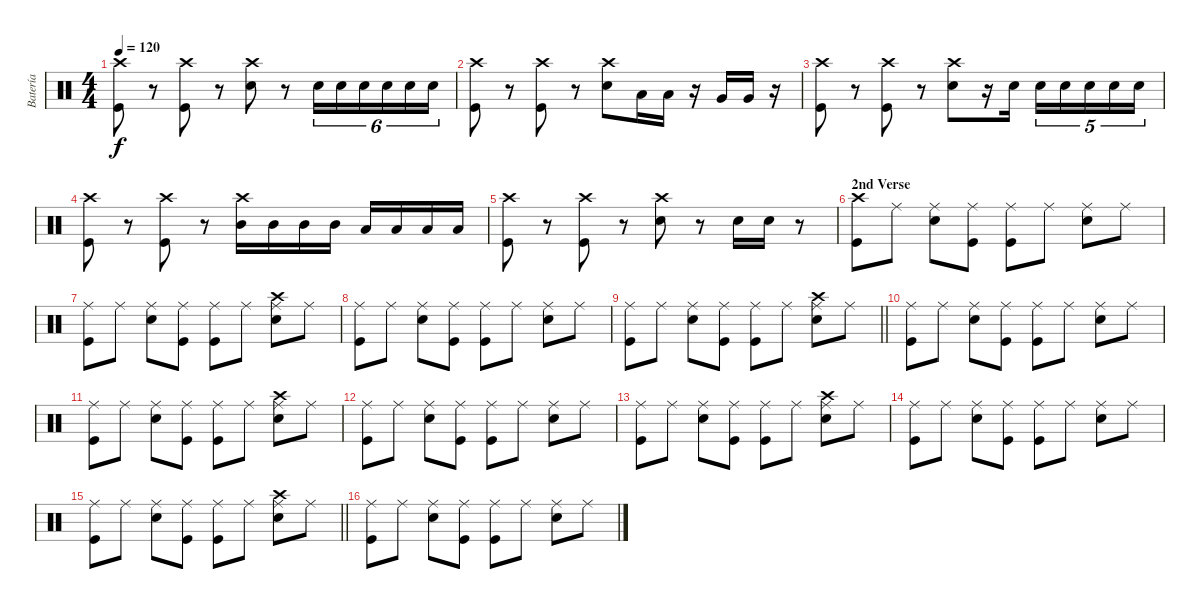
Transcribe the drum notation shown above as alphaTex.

\track ("Batería" "Batería") {instrument percussion}
\staff {score}
\articulation defaults
\ts (4 4)
\tempo 120
\clef neutral
\ks c
("Crash high (hit)" "Kick (hit)").8{dy f} r.8 ("Crash high (hit)" "Kick (hit)").8 r.8 ("Crash high (hit)" "Electric Snare (hit)").8 r.8 "Electric Snare (hit)".16{tu (6 4)} "Electric Snare (hit)".16{tu (6 4)} "Electric Snare (hit)".16{tu (6 4)} "Electric Snare (hit)".16{tu (6 4)} "Electric Snare (hit)".16{tu (6 4)} "Electric Snare (hit)".16{tu (6 4)} |
("Crash high (hit)" "Kick (hit)").8 r.8 ("Crash high (hit)" "Kick (hit)").8 r.8 ("Crash high (hit)" "Snare (hit) 2").8 "Low Tom (hit)".16 "Low Tom (hit)".16 r.16 "Very Low Tom (hit)".16 "Very Low Tom (hit)".16 r.16 |
("Crash high (hit)" "Kick (hit)").8 r.8 ("Crash high (hit)" "Kick (hit)").8 r.8 ("Crash high (hit)" "Electric Snare (hit)").8 r.16 "Electric Snare (hit)".16 "Electric Snare (hit)".16{tu (5 4)} "Electric Snare (hit)".16{tu (5 4)} "Electric Snare (hit)".16{tu (5 4)} "Electric Snare (hit)".16{tu (5 4)} "Electric Snare (hit)".16{tu (5 4)} |
("Crash high (hit)" "Kick (hit)").8 r.8 ("Crash high (hit)" "Kick (hit)").8 r.8 ("Crash high (hit)" "Mid Tom (hit)").16 "Mid Tom (hit)".16 "Mid Tom (hit)".16 "Mid Tom (hit)".16 "Low Tom (hit)".16 "Low Tom (hit)".16 "Low Tom (hit)".16 "Low Tom (hit)".16 |
("Crash high (hit)" "Kick (hit)").8 r.8 ("Crash high (hit)" "Kick (hit)").8 r.8 ("Crash high (hit)" "Electric Snare (hit)").8 r.8 "Electric Snare (hit)".16 "Electric Snare (hit)".16 r.8 |
\section ("" "2nd Verse")
("Crash high (hit)" "Kick (hit)").8 "Ride (middle)".8 ("Ride (middle)" "Electric Snare (hit)").8 ("Ride (middle)" "Kick (hit)").8 ("Ride (middle)" "Kick (hit)").8 "Ride (middle)".8 ("Ride (middle)" "Electric Snare (hit)").8 "Ride (middle)".8 |
("Ride (middle)" "Kick (hit)").8 "Ride (middle)".8 ("Ride (middle)" "Electric Snare (hit)").8 ("Ride (middle)" "Kick (hit)").8 ("Ride (middle)" "Kick (hit)").8 "Ride (middle)".8 ("Ride (middle)" "Electric Snare (hit)" "Crash high (hit)").8 "Ride (middle)".8 |
("Ride (middle)" "Kick (hit)").8 "Ride (middle)".8 ("Ride (middle)" "Electric Snare (hit)").8 ("Ride (middle)" "Kick (hit)").8 ("Ride (middle)" "Kick (hit)").8 "Ride (middle)".8 ("Ride (middle)" "Electric Snare (hit)").8 "Ride (middle)".8 |
\barLineRight lightlight
("Ride (middle)" "Kick (hit)").8 "Ride (middle)".8 ("Ride (middle)" "Electric Snare (hit)").8 ("Ride (middle)" "Kick (hit)").8 ("Ride (middle)" "Kick (hit)").8 "Ride (middle)".8 ("Ride (middle)" "Electric Snare (hit)" "Crash high (hit)").8 "Ride (middle)".8 |
("Ride (middle)" "Kick (hit)").8 "Ride (middle)".8 ("Ride (middle)" "Electric Snare (hit)").8 ("Ride (middle)" "Kick (hit)").8 ("Ride (middle)" "Kick (hit)").8 "Ride (middle)".8 ("Ride (middle)" "Electric Snare (hit)").8 "Ride (middle)".8 |
("Ride (middle)" "Kick (hit)").8 "Ride (middle)".8 ("Ride (middle)" "Electric Snare (hit)").8 ("Ride (middle)" "Kick (hit)").8 ("Ride (middle)" "Kick (hit)").8 "Ride (middle)".8 ("Ride (middle)" "Electric Snare (hit)" "Crash high (hit)").8 "Ride (middle)".8 |
("Ride (middle)" "Kick (hit)").8 "Ride (middle)".8 ("Ride (middle)" "Electric Snare (hit)").8 ("Ride (middle)" "Kick (hit)").8 ("Ride (middle)" "Kick (hit)").8 "Ride (middle)".8 ("Ride (middle)" "Electric Snare (hit)").8 "Ride (middle)".8 |
("Ride (middle)" "Kick (hit)").8 "Ride (middle)".8 ("Ride (middle)" "Electric Snare (hit)").8 ("Ride (middle)" "Kick (hit)").8 ("Ride (middle)" "Kick (hit)").8 "Ride (middle)".8 ("Ride (middle)" "Electric Snare (hit)" "Crash high (hit)").8 "Ride (middle)".8 |
("Ride (middle)" "Kick (hit)").8 "Ride (middle)".8 ("Ride (middle)" "Electric Snare (hit)").8 ("Ride (middle)" "Kick (hit)").8 ("Ride (middle)" "Kick (hit)").8 "Ride (middle)".8 ("Ride (middle)" "Electric Snare (hit)").8 "Ride (middle)".8 |
\barLineRight lightlight
("Ride (middle)" "Kick (hit)").8 "Ride (middle)".8 ("Ride (middle)" "Electric Snare (hit)").8 ("Ride (middle)" "Kick (hit)").8 ("Ride (middle)" "Kick (hit)").8 "Ride (middle)".8 ("Ride (middle)" "Electric Snare (hit)" "Crash high (hit)").8 "Ride (middle)".8 |
("Ride (middle)" "Kick (hit)").8 "Ride (middle)".8 ("Ride (middle)" "Electric Snare (hit)").8 ("Ride (middle)" "Kick (hit)").8 ("Ride (middle)" "Kick (hit)").8 "Ride (middle)".8 ("Ride (middle)" "Electric Snare (hit)").8 "Ride (middle)".8
